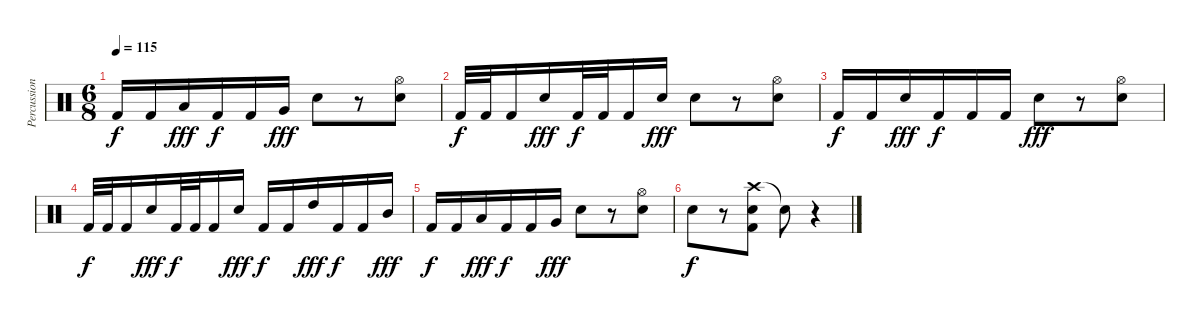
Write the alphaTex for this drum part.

\track ("Percussioni" "Percussion") {instrument percussion}
\staff {score}
\articulation defaults
\ts (6 8)
\tempo 115
\clef neutral
\ks c "Kick (hit) 2".16{dy f} "Kick (hit) 2".16 "Low Tom (hit)".16{dy fff} "Kick (hit) 2".16{dy f} "Kick (hit) 2".16 "Very Low Tom (hit)".16{dy fff} "Electric Snare (hit)".8
r.8 ("Hi-Hat (open)" "Electric Snare (hit)").8 |
"Kick (hit) 2".32{dy f} "Kick (hit) 2".32 "Kick (hit) 2".16 "Electric Snare (hit)".16{dy fff} "Kick (hit) 2".32{dy f} "Kick (hit) 2".32 "Kick (hit) 2".16 "Electric Snare (hit)".16{dy fff} "Electric Snare (hit)".8 r.8 ("Hi-Hat (open)" "Electric Snare (hit)").8 |
"Kick (hit) 2".16{dy f} "Kick (hit) 2".16 "Electric Snare (hit)".16{dy fff} "Kick (hit) 2".16{dy f} "Kick (hit) 2".16 "Kick (hit) 2".16 "Electric Snare (hit)".8{dy fff} r.8 ("Hi-Hat (open)" "Electric Snare (hit)").8 |
"Kick (hit) 2".32{dy f} "Kick (hit) 2".32 "Kick (hit) 2".16 "Electric Snare (hit)".16{dy fff} "Kick (hit) 2".32{dy f} "Kick (hit) 2".32 "Kick (hit) 2".16 "Electric Snare (hit)".16{dy fff} "Kick (hit) 2".16{dy f} "Kick (hit) 2".16 "High Tom (hit)".16{dy fff} "Kick (hit) 2".16{dy f} "Kick (hit) 2".16 "Mid Tom (hit)".16{dy fff} |
"Kick (hit) 2".16{dy f} "Kick (hit) 2".16 "Low Tom (hit)".16{dy fff} "Kick (hit) 2".16{dy f} "Kick (hit) 2".16 "Very Low Tom (hit)".16{dy fff} "Electric Snare (hit)".8 r.8 ("Hi-Hat (open)" "Electric Snare (hit)").8 |
"Electric Snare (hit)".8{dy f} r.8 ("Crash high (hit)" "Electric Snare (hit)" "Kick (hit) 2").8 "Snare (hit)"{t}.8 r.4
